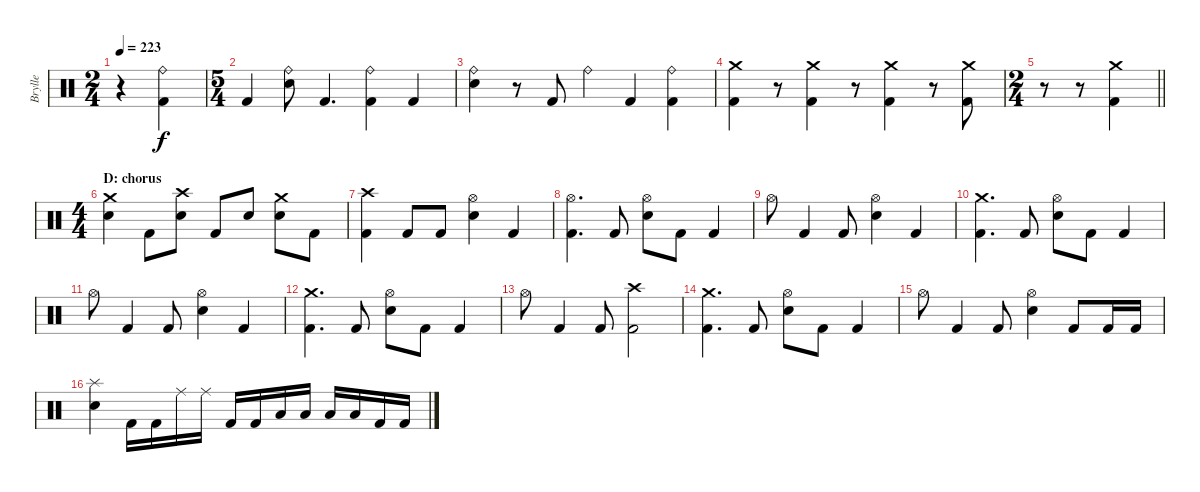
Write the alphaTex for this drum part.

\track ("Brylle" "Brylle") {instrument percussion}
\staff {score}
\articulation defaults
\ts (2 4)
\tempo 223
\clef neutral
\ks c
r.4{dy f} ("Ride (bell)" "Kick (hit) 2").4 |
\ts (5 4)
"Kick (hit) 2".4 ("Ride (bell)" "Electric Snare (hit)").8 "Kick (hit) 2".4{d} ("Ride (bell)" "Kick (hit) 2").4 "Kick (hit) 2".4 |
("Ride (bell)" "Electric Snare (hit)").4 r.8 "Kick (hit) 2".8 "Ride (bell)".4 "Kick (hit) 2".4 ("Ride (bell)" "Kick (hit) 2").4 |
("Crash medium (hit)" "Kick (hit) 2").4 r.8{volume 0} ("Crash medium (hit)" "Kick (hit) 2").4{volume 16} r.8{volume 0} ("Crash medium (hit)" "Kick (hit) 2").4{volume 16} r.8{volume 0} ("Crash medium (hit)" "Kick (hit) 2").8{volume 16} |
\ts (2 4)
\barLineRight lightlight
r.8 r.8{volume 0} ("Crash medium (hit)" "Kick (hit) 2").4{volume 16} |
\ts (4 4)
\section ("" "D: chorus")
("Crash medium (hit)" "Electric Snare (hit)").4 "Kick (hit) 2".8 ("Crash high (hit)" "Electric Snare (hit)").8 "Kick (hit) 2".8 "Electric Snare (hit)".8 ("Crash medium (hit)" "Electric Snare (hit)").8 "Kick (hit) 2".8 |
("Crash high (hit)" "Kick (hit) 2").4 "Kick (hit) 2".8 "Kick (hit) 2".8 ("Hi-Hat (open)" "Electric Snare (hit)").4 "Kick (hit) 2".4 |
("Hi-Hat (open)" "Kick (hit) 2").4{d} "Kick (hit) 2".8 ("Hi-Hat (open)" "Electric Snare (hit)").8 "Kick (hit) 2".8 "Kick (hit) 2".4 |
"Hi-Hat (open)".8 "Kick (hit) 2".4 "Kick (hit) 2".8 ("Hi-Hat (open)" "Electric Snare (hit)").4 "Kick (hit) 2".4 |
("Crash medium (hit)" "Kick (hit) 2").4{d} "Kick (hit) 2".8 ("Hi-Hat (open)" "Electric Snare (hit)").8 "Kick (hit) 2".8 "Kick (hit) 2".4 |
"Hi-Hat (open)".8 "Kick (hit) 2".4 "Kick (hit) 2".8 ("Hi-Hat (open)" "Electric Snare (hit)").4 "Kick (hit) 2".4 |
("Crash medium (hit)" "Kick (hit) 2").4{d} "Kick (hit) 2".8 ("Hi-Hat (open)" "Electric Snare (hit)").8 "Kick (hit) 2".8 "Kick (hit) 2".4 |
"Hi-Hat (open)".8 "Kick (hit) 2".4 "Kick (hit) 2".8 ("Crash high (hit)" "Kick (hit) 2").2 |
("Crash medium (hit)" "Kick (hit) 2").4{d} "Kick (hit) 2".8 ("Hi-Hat (open)" "Electric Snare (hit)").8 "Kick (hit) 2".8 "Kick (hit) 2".4 |
"Hi-Hat (open)".8 "Kick (hit) 2".4 "Kick (hit) 2".8 ("Hi-Hat (open)" "Electric Snare (hit)").4 "Kick (hit) 2".8 "Kick (hit) 2".16 "Kick (hit) 2".16 |
("Splash (hit)" "Electric Snare (hit)").4 "Kick (hit) 2".16 "Kick (hit) 2".16 "Ride (middle)".16 "Ride (middle)".16 "Kick (hit) 2".16 "Kick (hit) 2".16 "Low Tom (hit)".16 "Low Tom (hit)".16 "Low Tom (hit)".16 "Low Tom (hit)".16 "Kick (hit) 2".16 "Kick (hit) 2".16
